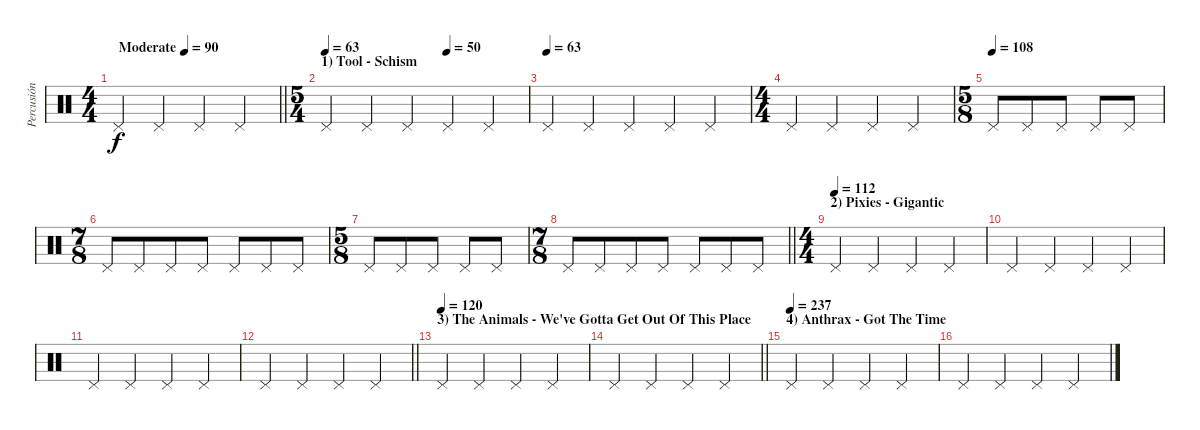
\track ("Percusión" "Percusión") {instrument percussion}
\staff {score}
\articulation defaults
\ts (4 4)
\tempo (90 "Moderate")
\tempo 63
\tempo (90 "Moderate")
\clef neutral
\barLineRight lightlight
\ks c "Pedal Hi-Hat (hit)".4{dy f} "Pedal Hi-Hat (hit)".4 "Pedal Hi-Hat (hit)".4 "Pedal Hi-Hat (hit)".4
|
\ts (5 4)
\section ("" "1) Tool - Schism")
\tempo 63
\tempo (50 0.6)
"Pedal Hi-Hat (hit)".4 "Pedal Hi-Hat (hit)".4 "Pedal Hi-Hat (hit)".4 "Pedal Hi-Hat (hit)".4 "Pedal Hi-Hat (hit)".4 |
\tempo (63)
"Pedal Hi-Hat (hit)".4 "Pedal Hi-Hat (hit)".4 "Pedal Hi-Hat (hit)".4 "Pedal Hi-Hat (hit)".4 "Pedal Hi-Hat (hit)".4 |
\ts (4 4)
"Pedal Hi-Hat (hit)".4 "Pedal Hi-Hat (hit)".4 "Pedal Hi-Hat (hit)".4 "Pedal Hi-Hat (hit)".4 |
\ts (5 8)
\tempo (108)
"Pedal Hi-Hat (hit)".8 "Pedal Hi-Hat (hit)".8 "Pedal Hi-Hat (hit)".8 "Pedal Hi-Hat (hit)".8 "Pedal Hi-Hat (hit)".8 |
\ts (7 8)
"Pedal Hi-Hat (hit)".8 "Pedal Hi-Hat (hit)".8 "Pedal Hi-Hat (hit)".8 "Pedal Hi-Hat (hit)".8 "Pedal Hi-Hat (hit)".8 "Pedal Hi-Hat (hit)".8 "Pedal Hi-Hat (hit)".8 |
\ts (5 8)
"Pedal Hi-Hat (hit)".8 "Pedal Hi-Hat (hit)".8 "Pedal Hi-Hat (hit)".8 "Pedal Hi-Hat (hit)".8 "Pedal Hi-Hat (hit)".8 |
\ts (7 8)
\barLineRight lightlight "Pedal Hi-Hat (hit)".8 "Pedal Hi-Hat (hit)".8 "Pedal Hi-Hat (hit)".8 "Pedal Hi-Hat (hit)".8 "Pedal Hi-Hat (hit)".8 "Pedal Hi-Hat (hit)".8 "Pedal Hi-Hat (hit)".8
|
\ts (4 4)
\section ("" "2) Pixies - Gigantic")
\tempo (112)
"Pedal Hi-Hat (hit)".4 "Pedal Hi-Hat (hit)".4 "Pedal Hi-Hat (hit)".4 "Pedal Hi-Hat (hit)".4 |
"Pedal Hi-Hat (hit)".4 "Pedal Hi-Hat (hit)".4 "Pedal Hi-Hat (hit)".4 "Pedal Hi-Hat (hit)".4 |
"Pedal Hi-Hat (hit)".4 "Pedal Hi-Hat (hit)".4 "Pedal Hi-Hat (hit)".4 "Pedal Hi-Hat (hit)".4 |
\barLineRight lightlight "Pedal Hi-Hat (hit)".4 "Pedal Hi-Hat (hit)".4 "Pedal Hi-Hat (hit)".4 "Pedal Hi-Hat (hit)".4
|
\section ("" "3) The Animals - We've Gotta Get Out Of This Place")
\tempo (120)
"Pedal Hi-Hat (hit)".4 "Pedal Hi-Hat (hit)".4 "Pedal Hi-Hat (hit)".4 "Pedal Hi-Hat (hit)".4 |
\barLineRight lightlight "Pedal Hi-Hat (hit)".4 "Pedal Hi-Hat (hit)".4 "Pedal Hi-Hat (hit)".4 "Pedal Hi-Hat (hit)".4
|
\section ("" "4) Anthrax - Got The Time")
\tempo (237)
"Pedal Hi-Hat (hit)".4 "Pedal Hi-Hat (hit)".4 "Pedal Hi-Hat (hit)".4 "Pedal Hi-Hat (hit)".4 |
"Pedal Hi-Hat (hit)".4 "Pedal Hi-Hat (hit)".4 "Pedal Hi-Hat (hit)".4 "Pedal Hi-Hat (hit)".4
